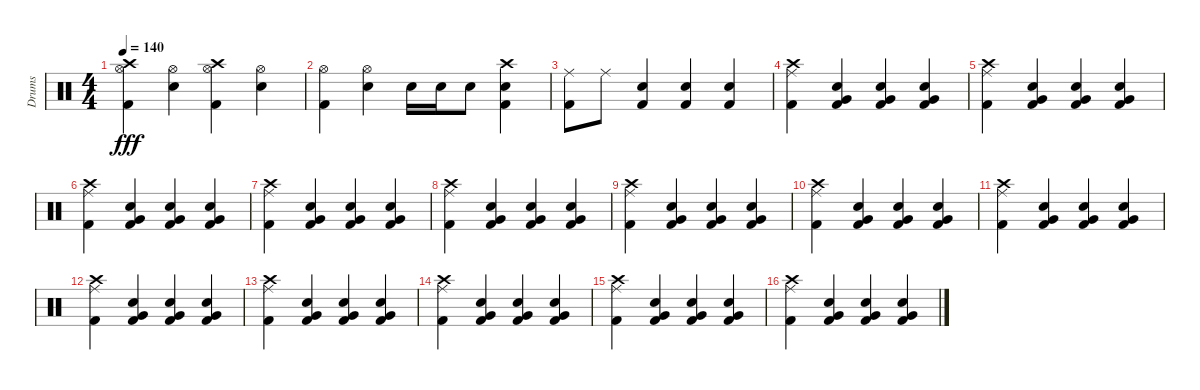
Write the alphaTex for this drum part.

\track ("Drums" "Drums") {instrument percussion}
\staff {score}
\articulation defaults
\ts (4 4)
\tempo 140
\clef neutral
\ks c
("Crash high (hit)" "Hi-Hat (open)" "Kick (hit) 2").4{dy fff} ("Snare (hit) 2" "Hi-Hat (open)").4 ("Crash high (hit)" "Hi-Hat (open)" "Kick (hit) 2").4 ("Snare (hit) 2" "Hi-Hat (open)").4 |
("Hi-Hat (open)" "Kick (hit) 2").4 ("Hi-Hat (open)" "Snare (hit) 2").4 "Snare (hit) 2".16 "Snare (hit) 2".16 "Snare (hit) 2".8 ("Crash high (hit)" "Snare (hit) 2" "Kick (hit) 2").4 |
("Ride (middle)" "Kick (hit) 2").8 "Ride (middle)".8 ("Snare (hit) 2" "Kick (hit) 2").4 ("Snare (hit) 2" "Kick (hit) 2").4 ("Snare (hit) 2" "Kick (hit) 2").4 |
("Crash high (hit)" "Ride (middle)" "Kick (hit) 2").4 ("Very Low Tom (hit)" "Snare (hit) 2" "Kick (hit) 2").4 ("Very Low Tom (hit)" "Snare (hit) 2" "Kick (hit) 2").4 ("Very Low Tom (hit)" "Snare (hit) 2" "Kick (hit) 2").4 |
("Crash high (hit)" "Ride (middle)" "Kick (hit) 2").4 ("Very Low Tom (hit)" "Snare (hit) 2" "Kick (hit) 2").4 ("Very Low Tom (hit)" "Snare (hit) 2" "Kick (hit) 2").4 ("Very Low Tom (hit)" "Snare (hit) 2" "Kick (hit) 2").4 |
("Crash high (hit)" "Ride (middle)" "Kick (hit) 2").4 ("Very Low Tom (hit)" "Snare (hit) 2" "Kick (hit) 2").4 ("Very Low Tom (hit)" "Snare (hit) 2" "Kick (hit) 2").4 ("Very Low Tom (hit)" "Snare (hit) 2" "Kick (hit) 2").4 |
("Crash high (hit)" "Ride (middle)" "Kick (hit) 2").4 ("Very Low Tom (hit)" "Snare (hit) 2" "Kick (hit) 2").4 ("Very Low Tom (hit)" "Snare (hit) 2" "Kick (hit) 2").4 ("Very Low Tom (hit)" "Snare (hit) 2" "Kick (hit) 2").4 |
("Crash high (hit)" "Ride (middle)" "Kick (hit) 2").4 ("Very Low Tom (hit)" "Snare (hit) 2" "Kick (hit) 2").4 ("Very Low Tom (hit)" "Snare (hit) 2" "Kick (hit) 2").4 ("Very Low Tom (hit)" "Snare (hit) 2" "Kick (hit) 2").4 |
("Crash high (hit)" "Ride (middle)" "Kick (hit) 2").4 ("Very Low Tom (hit)" "Snare (hit) 2" "Kick (hit) 2").4 ("Very Low Tom (hit)" "Snare (hit) 2" "Kick (hit) 2").4 ("Very Low Tom (hit)" "Snare (hit) 2" "Kick (hit) 2").4 |
("Crash high (hit)" "Ride (middle)" "Kick (hit) 2").4 ("Very Low Tom (hit)" "Snare (hit) 2" "Kick (hit) 2").4 ("Very Low Tom (hit)" "Snare (hit) 2" "Kick (hit) 2").4 ("Very Low Tom (hit)" "Snare (hit) 2" "Kick (hit) 2").4 |
("Crash high (hit)" "Ride (middle)" "Kick (hit) 2").4 ("Very Low Tom (hit)" "Snare (hit) 2" "Kick (hit) 2").4 ("Very Low Tom (hit)" "Snare (hit) 2" "Kick (hit) 2").4 ("Very Low Tom (hit)" "Snare (hit) 2" "Kick (hit) 2").4 |
("Crash high (hit)" "Ride (middle)" "Kick (hit) 2").4 ("Very Low Tom (hit)" "Snare (hit) 2" "Kick (hit) 2").4 ("Very Low Tom (hit)" "Snare (hit) 2" "Kick (hit) 2").4 ("Very Low Tom (hit)" "Snare (hit) 2" "Kick (hit) 2").4 |
("Crash high (hit)" "Ride (middle)" "Kick (hit) 2").4 ("Very Low Tom (hit)" "Snare (hit) 2" "Kick (hit) 2").4 ("Very Low Tom (hit)" "Snare (hit) 2" "Kick (hit) 2").4 ("Very Low Tom (hit)" "Snare (hit) 2" "Kick (hit) 2").4 |
("Crash high (hit)" "Ride (middle)" "Kick (hit) 2").4 ("Very Low Tom (hit)" "Snare (hit) 2" "Kick (hit) 2").4 ("Very Low Tom (hit)" "Snare (hit) 2" "Kick (hit) 2").4 ("Very Low Tom (hit)" "Snare (hit) 2" "Kick (hit) 2").4 |
("Crash high (hit)" "Ride (middle)" "Kick (hit) 2").4 ("Very Low Tom (hit)" "Snare (hit) 2" "Kick (hit) 2").4 ("Very Low Tom (hit)" "Snare (hit) 2" "Kick (hit) 2").4 ("Very Low Tom (hit)" "Snare (hit) 2" "Kick (hit) 2").4 |
("Crash high (hit)" "Ride (middle)" "Kick (hit) 2").4 ("Very Low Tom (hit)" "Snare (hit) 2" "Kick (hit) 2").4 ("Very Low Tom (hit)" "Snare (hit) 2" "Kick (hit) 2").4 ("Very Low Tom (hit)" "Snare (hit) 2" "Kick (hit) 2").4
